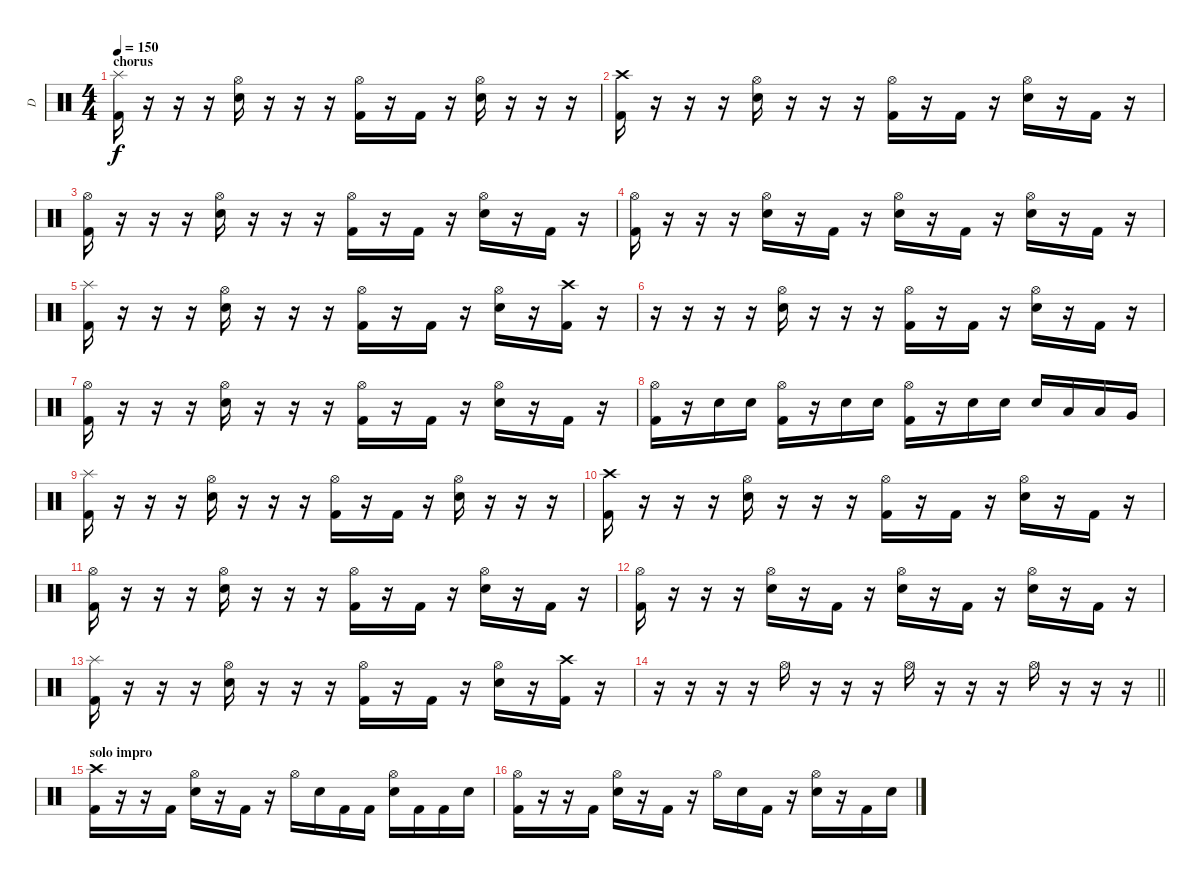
\track ("D" "D") {instrument percussion}
\staff {score}
\articulation defaults
\ts (4 4)
\section ("" "chorus")
\tempo 150
\clef neutral
\ks c
("Splash (hit)" "Kick (hit) 2").16{dy f} r.16 r.16 r.16 ("Hi-Hat (open)" "Electric Snare (hit)").16 r.16 r.16 r.16 ("Hi-Hat (open)" "Kick (hit) 2").16 r.16 "Kick (hit) 2".16 r.16 ("Hi-Hat (open)" "Electric Snare (hit)").16 r.16 r.16 r.16 |
("Crash high (hit)" "Kick (hit) 2").16 r.16 r.16 r.16 ("Hi-Hat (open)" "Electric Snare (hit)").16 r.16 r.16 r.16 ("Hi-Hat (open)" "Kick (hit) 2").16 r.16 "Kick (hit) 2".16 r.16 ("Hi-Hat (open)" "Electric Snare (hit)").16 r.16 "Kick (hit) 2".16 r.16 |
("Hi-Hat (open)" "Kick (hit) 2").16 r.16 r.16 r.16 ("Hi-Hat (open)" "Electric Snare (hit)").16 r.16 r.16 r.16 ("Hi-Hat (open)" "Kick (hit) 2").16 r.16 "Kick (hit) 2".16 r.16 ("Hi-Hat (open)" "Electric Snare (hit)").16 r.16 "Kick (hit) 2".16 r.16 |
("Hi-Hat (open)" "Kick (hit) 2").16 r.16 r.16 r.16 ("Hi-Hat (open)" "Electric Snare (hit)").16 r.16 "Kick (hit) 2".16 r.16 ("Hi-Hat (open)" "Electric Snare (hit)").16 r.16 "Kick (hit) 2".16 r.16 ("Hi-Hat (open)" "Electric Snare (hit)").16 r.16 "Kick (hit) 2".16 r.16 |
("Splash (hit)" "Kick (hit) 2").16 r.16 r.16 r.16 ("Hi-Hat (open)" "Electric Snare (hit)").16 r.16 r.16 r.16 ("Hi-Hat (open)" "Kick (hit) 2").16 r.16 "Kick (hit) 2".16 r.16 ("Hi-Hat (open)" "Electric Snare (hit)").16 r.16 ("Crash high (hit)" "Kick (hit) 2").16 r.16 |
r.16 r.16 r.16 r.16 ("Hi-Hat (open)" "Electric Snare (hit)").16 r.16 r.16 r.16 ("Hi-Hat (open)" "Kick (hit) 2").16 r.16 "Kick (hit) 2".16 r.16 ("Hi-Hat (open)" "Electric Snare (hit)").16 r.16 "Kick (hit) 2".16 r.16 |
("Hi-Hat (open)" "Kick (hit) 2").16 r.16 r.16 r.16 ("Hi-Hat (open)" "Electric Snare (hit)").16 r.16 r.16 r.16 ("Hi-Hat (open)" "Kick (hit) 2").16 r.16 "Kick (hit) 2".16 r.16 ("Hi-Hat (open)" "Electric Snare (hit)").16 r.16 "Kick (hit) 2".16 r.16 |
("Hi-Hat (open)" "Kick (hit) 2").16 r.16 "Electric Snare (hit)".16 "Electric Snare (hit)".16 ("Hi-Hat (open)" "Kick (hit) 2").16 r.16 "Electric Snare (hit)".16 "Electric Snare (hit)".16 ("Hi-Hat (open)" "Kick (hit) 2").16 r.16 "Electric Snare (hit)".16 "Electric Snare (hit)".16 "Electric Snare (hit)".16 "Low Tom (hit)".16 "Low Tom (hit)".16 "Very Low Tom (hit)".16 |
("Splash (hit)" "Kick (hit) 2").16 r.16 r.16 r.16 ("Hi-Hat (open)" "Electric Snare (hit)").16 r.16 r.16 r.16 ("Hi-Hat (open)" "Kick (hit) 2").16 r.16 "Kick (hit) 2".16 r.16 ("Hi-Hat (open)" "Electric Snare (hit)").16 r.16 r.16 r.16 |
("Crash high (hit)" "Kick (hit) 2").16 r.16 r.16 r.16 ("Hi-Hat (open)" "Electric Snare (hit)").16 r.16 r.16 r.16 ("Hi-Hat (open)" "Kick (hit) 2").16 r.16 "Kick (hit) 2".16 r.16 ("Hi-Hat (open)" "Electric Snare (hit)").16 r.16 "Kick (hit) 2".16 r.16 |
("Hi-Hat (open)" "Kick (hit) 2").16 r.16 r.16 r.16 ("Hi-Hat (open)" "Electric Snare (hit)").16 r.16 r.16 r.16 ("Hi-Hat (open)" "Kick (hit) 2").16 r.16 "Kick (hit) 2".16 r.16 ("Hi-Hat (open)" "Electric Snare (hit)").16 r.16 "Kick (hit) 2".16 r.16 |
("Hi-Hat (open)" "Kick (hit) 2").16 r.16 r.16 r.16 ("Hi-Hat (open)" "Electric Snare (hit)").16 r.16 "Kick (hit) 2".16 r.16 ("Hi-Hat (open)" "Electric Snare (hit)").16 r.16 "Kick (hit) 2".16 r.16 ("Hi-Hat (open)" "Electric Snare (hit)").16 r.16 "Kick (hit) 2".16 r.16 |
("Splash (hit)" "Kick (hit) 2").16 r.16 r.16 r.16 ("Hi-Hat (open)" "Electric Snare (hit)").16 r.16 r.16 r.16 ("Hi-Hat (open)" "Kick (hit) 2").16 r.16 "Kick (hit) 2".16 r.16 ("Hi-Hat (open)" "Electric Snare (hit)").16 r.16 ("Crash high (hit)" "Kick (hit) 2").16 r.16 |
\barLineRight lightlight
r.16 r.16 r.16 r.16 "Hi-Hat (open)".16 r.16 r.16 r.16 "Hi-Hat (open)".16 r.16 r.16 r.16 "Hi-Hat (open)".16 r.16 r.16 r.16 |
\section ("" "solo impro")
("Crash high (hit)" "Kick (hit) 2").16 r.16 r.16 "Kick (hit) 2".16 ("Hi-Hat (open)" "Electric Snare (hit)").16 r.16 "Kick (hit) 2".16 r.16 "Hi-Hat (open)".16 "Electric Snare (hit)".16 "Kick (hit) 2".16 "Kick (hit) 2".16 ("Hi-Hat (open)" "Electric Snare (hit)").16 "Kick (hit) 2".16 "Kick (hit) 2".16 "Electric Snare (hit)".16 |
("Hi-Hat (open)" "Kick (hit) 2").16 r.16 r.16 "Kick (hit) 2".16 ("Hi-Hat (open)" "Electric Snare (hit)").16 r.16 "Kick (hit) 2".16 r.16 "Hi-Hat (open)".16 "Electric Snare (hit)".16 "Kick (hit) 2".16 r.16 ("Hi-Hat (open)" "Electric Snare (hit)").16 r.16 "Kick (hit) 2".16 "Electric Snare (hit)".16
